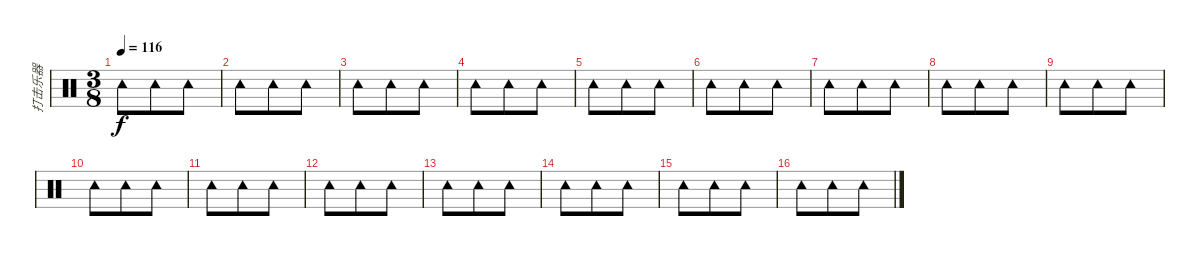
\track ("打击乐器" "打击乐器") {instrument percussion}
\staff {score}
\articulation defaults
\ts (3 8)
\tempo 116
\clef neutral
\ks c "Tambourine (hit)".8{dy f} "Tambourine (hit)".8 "Tambourine (hit)".8
|
"Tambourine (hit)".8 "Tambourine (hit)".8 "Tambourine (hit)".8 |
"Tambourine (hit)".8 "Tambourine (hit)".8 "Tambourine (hit)".8 |
"Tambourine (hit)".8 "Tambourine (hit)".8 "Tambourine (hit)".8 |
"Tambourine (hit)".8 "Tambourine (hit)".8 "Tambourine (hit)".8 |
"Tambourine (hit)".8 "Tambourine (hit)".8 "Tambourine (hit)".8 |
"Tambourine (hit)".8 "Tambourine (hit)".8 "Tambourine (hit)".8 |
"Tambourine (hit)".8 "Tambourine (hit)".8 "Tambourine (hit)".8 |
"Tambourine (hit)".8 "Tambourine (hit)".8 "Tambourine (hit)".8 |
"Tambourine (hit)".8 "Tambourine (hit)".8 "Tambourine (hit)".8 |
"Tambourine (hit)".8 "Tambourine (hit)".8 "Tambourine (hit)".8 |
"Tambourine (hit)".8 "Tambourine (hit)".8 "Tambourine (hit)".8 |
"Tambourine (hit)".8 "Tambourine (hit)".8 "Tambourine (hit)".8 |
"Tambourine (hit)".8 "Tambourine (hit)".8 "Tambourine (hit)".8 |
"Tambourine (hit)".8 "Tambourine (hit)".8 "Tambourine (hit)".8 |
"Tambourine (hit)".8 "Tambourine (hit)".8 "Tambourine (hit)".8
